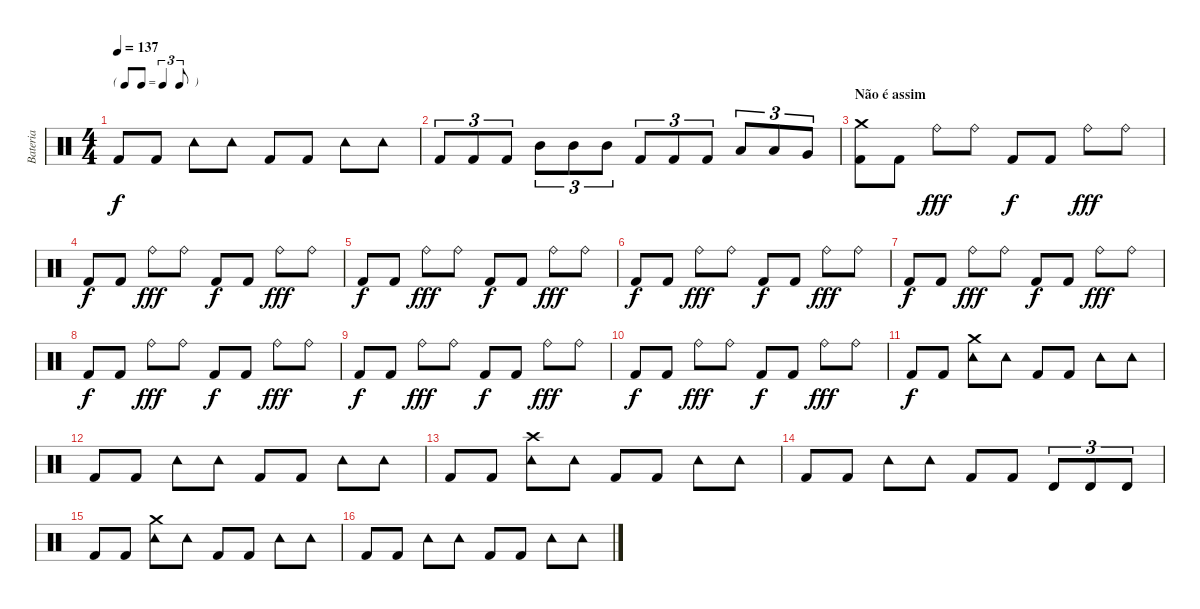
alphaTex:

\track ("Bateria" "Bateria") {instrument percussion}
\staff {score}
\articulation defaults
\ts (4 4)
\tf triplet8th
\tempo 137
\clef neutral
\ks c "Kick (hit) 2".8{dy f} "Kick (hit) 2".8 "Tambourine (hit)".8 "Tambourine (hit)".8 "Kick (hit) 2".8 "Kick (hit) 2".8 "Tambourine (hit)".8 "Tambourine (hit)".8
|
"Kick (hit) 2".8{tu (3 2)} "Kick (hit) 2".8{tu (3 2)} "Kick (hit) 2".8{tu (3 2)} "Mid Tom (hit)".8{tu (3 2)} "Mid Tom (hit)".8{tu (3 2)} "Mid Tom (hit)".8{tu (3 2)} "Kick (hit) 2".8{tu (3 2)} "Kick (hit) 2".8{tu (3 2)} "Kick (hit) 2".8{tu (3 2)} "Low Tom (hit)".8{tu (3 2)} "Low Tom (hit)".8{tu (3 2)} "Very Low Tom (hit)".8{tu (3 2)} |
\section ("" "Não é assim")
("Kick (hit) 2" "Crash medium (hit)").8 "Kick (hit) 2".8 "Ride (bell)".8{dy fff} "Ride (bell)".8 "Kick (hit) 2".8{dy f} "Kick (hit) 2".8 "Ride (bell)".8{dy fff} "Ride (bell)".8 |
"Kick (hit) 2".8{dy f} "Kick (hit) 2".8 "Ride (bell)".8{dy fff} "Ride (bell)".8 "Kick (hit) 2".8{dy f} "Kick (hit) 2".8 "Ride (bell)".8{dy fff} "Ride (bell)".8 |
"Kick (hit) 2".8{dy f} "Kick (hit) 2".8 "Ride (bell)".8{dy fff} "Ride (bell)".8 "Kick (hit) 2".8{dy f} "Kick (hit) 2".8 "Ride (bell)".8{dy fff} "Ride (bell)".8 |
"Kick (hit) 2".8{dy f} "Kick (hit) 2".8 "Ride (bell)".8{dy fff} "Ride (bell)".8 "Kick (hit) 2".8{dy f} "Kick (hit) 2".8 "Ride (bell)".8{dy fff} "Ride (bell)".8 |
"Kick (hit) 2".8{dy f} "Kick (hit) 2".8 "Ride (bell)".8{dy fff} "Ride (bell)".8 "Kick (hit) 2".8{dy f} "Kick (hit) 2".8 "Ride (bell)".8{dy fff} "Ride (bell)".8 |
"Kick (hit) 2".8{dy f} "Kick (hit) 2".8 "Ride (bell)".8{dy fff} "Ride (bell)".8 "Kick (hit) 2".8{dy f} "Kick (hit) 2".8 "Ride (bell)".8{dy fff} "Ride (bell)".8 |
"Kick (hit) 2".8{dy f} "Kick (hit) 2".8 "Ride (bell)".8{dy fff} "Ride (bell)".8 "Kick (hit) 2".8{dy f} "Kick (hit) 2".8 "Ride (bell)".8{dy fff} "Ride (bell)".8 |
"Kick (hit) 2".8{dy f} "Kick (hit) 2".8 "Ride (bell)".8{dy fff} "Ride (bell)".8 "Kick (hit) 2".8{dy f} "Kick (hit) 2".8 "Ride (bell)".8{dy fff} "Ride (bell)".8 |
"Kick (hit) 2".8{dy f} "Kick (hit) 2".8 ("Tambourine (hit)" "Crash medium (hit)").8 "Tambourine (hit)".8 "Kick (hit) 2".8 "Kick (hit) 2".8 "Tambourine (hit)".8 "Tambourine (hit)".8 |
"Kick (hit) 2".8 "Kick (hit) 2".8 "Tambourine (hit)".8 "Tambourine (hit)".8 "Kick (hit) 2".8 "Kick (hit) 2".8 "Tambourine (hit)".8 "Tambourine (hit)".8 |
"Kick (hit) 2".8 "Kick (hit) 2".8 ("Tambourine (hit)" "Crash high (hit)").8 "Tambourine (hit)".8 "Kick (hit) 2".8 "Kick (hit) 2".8 "Tambourine (hit)".8 "Tambourine (hit)".8 |
"Kick (hit) 2".8 "Kick (hit) 2".8 "Tambourine (hit)".8 "Tambourine (hit)".8 "Kick (hit) 2".8 "Kick (hit) 2".8 "Timbale high (hit)".8{tu (3 2)} "Timbale high (hit)".8{tu (3 2)} "Timbale high (hit)".8{tu (3 2)} |
"Kick (hit) 2".8 "Kick (hit) 2".8 ("Tambourine (hit)" "Crash medium (hit)").8 "Tambourine (hit)".8 "Kick (hit) 2".8 "Kick (hit) 2".8 "Tambourine (hit)".8 "Tambourine (hit)".8 |
"Kick (hit) 2".8 "Kick (hit) 2".8 "Tambourine (hit)".8 "Tambourine (hit)".8 "Kick (hit) 2".8 "Kick (hit) 2".8 "Tambourine (hit)".8 "Tambourine (hit)".8
